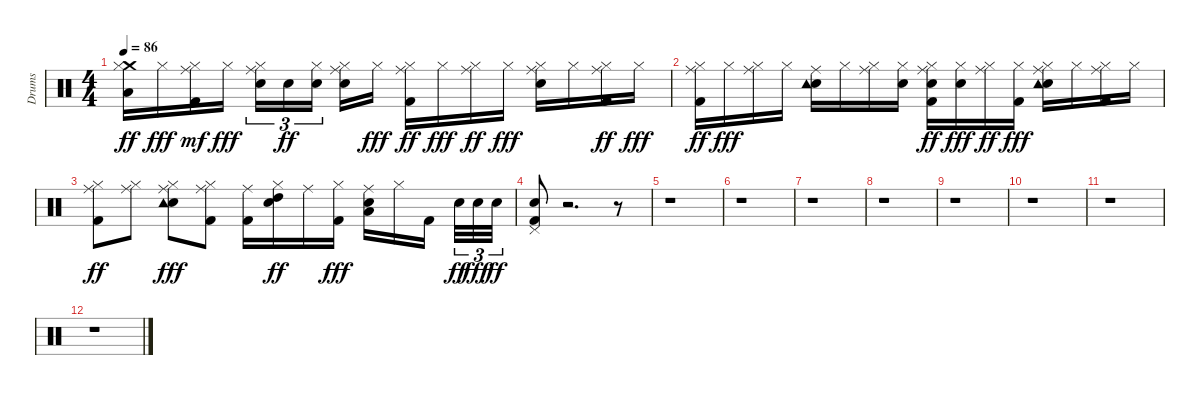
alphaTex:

\track ("Drums" "Drums") {instrument percussion}
\staff {score}
\articulation defaults
\ts (4 4)
\tempo 86
\clef neutral
\ks c
("Low Floor Tom (hit)" "Crash medium (hit)" "Hi-Hat (closed)").16{dy ff} "Hi-Hat (closed)".16{dy fff} ("Kick (hit) 2" "Ride (middle)" "Hi-Hat (closed)").16{dy mf} "Hi-Hat (closed)".16{dy fff} ("Snare (hit) 2" "Ride (middle)" "Hi-Hat (closed)").16{tu (3 2)} "Snare (hit) 2".16{tu (3 2) dy ff} ("Snare (hit) 2" "Hi-Hat (closed)").16{tu (3 2)} ("Snare (hit) 2" "Ride (middle)" "Hi-Hat (closed)").16 "Hi-Hat (closed)".16{dy fff} ("Kick (hit) 2" "Ride (middle)" "Hi-Hat (closed)").16{dy ff} "Hi-Hat (closed)".16{dy fff} ("Ride (middle)" "Hi-Hat (closed)").16{dy ff} "Hi-Hat (closed)".16{dy fff} ("Snare (hit) 2" "Ride (middle)" "Hi-Hat (closed)").16 "Hi-Hat (closed)".16 ("Kick (hit) 2" "Ride (middle)" "Hi-Hat (closed)").16{dy ff} "Hi-Hat (closed)".16{dy fff} |
("Kick (hit) 2" "Ride (middle)" "Hi-Hat (closed)").16{dy ff} "Hi-Hat (closed)".16{dy fff} ("Ride (middle)" "Hi-Hat (closed)").16 "Hi-Hat (closed)".16 ("Snare (hit) 2" "Ride (middle)" "Tambourine (hit)").16 "Hi-Hat (closed)".16 ("Ride (middle)" "Hi-Hat (closed)").16 ("Snare (hit) 2" "Hi-Hat (closed)").16 ("Kick (hit) 2" "Ride (middle)" "Snare (hit) 2" "Hi-Hat (closed)").16{dy ff} ("Snare (hit) 2" "Hi-Hat (closed)").16{dy fff} ("Ride (middle)" "Hi-Hat (closed)").16{dy ff} ("Kick (hit) 2" "Hi-Hat (closed)").16{dy fff} ("Snare (hit) 2" "Ride (middle)" "Tambourine (hit)" "Hi-Hat (closed)").16 "Hi-Hat (closed)".16 ("Kick (hit) 2" "Ride (middle)" "Hi-Hat (closed)").16 "Hi-Hat (closed)".16 |
("Kick (hit) 2" "Ride (middle)" "Hi-Hat (closed)").8{dy ff} ("Ride (middle)" "Hi-Hat (closed)").8 ("Snare (hit) 2" "Ride (middle)" "Tambourine (hit)" "Hi-Hat (closed)").8{dy fff} ("Kick (hit) 2" "Ride (middle)" "Hi-Hat (closed)").8 ("Kick (hit) 2" "Ride (middle)").16 ("High Tom (hit)" "Snare (hit) 2" "Hi-Hat (closed)").16{dy ff} "Ride (middle)".16 ("Kick (hit) 2" "Hi-Hat (closed)").16{dy fff} ("Snare (hit) 2" "Ride (middle)" "Low Tom (hit)").16 "Hi-Hat (closed)".16 "Kick (hit) 2".16 "Snare (hit) 2".32{tu (3 2) dy ff} "Snare (hit) 2".32{tu (3 2) dy fff} "Snare (hit) 2".32{tu (3 2) dy ff} |
("Kick (hit) 2" "Snare (hit) 2" "Pedal Hi-Hat (hit)").8 r.2{d} r.8 |
r.1 |
r.1 |
r.1 |
r.1 |
r.1 |
r.1 |
r.1 |
r.1
